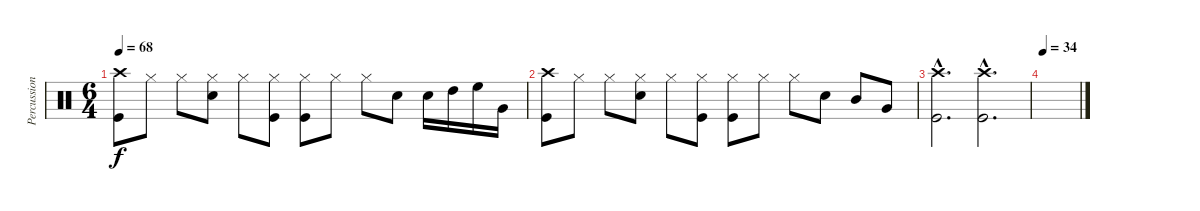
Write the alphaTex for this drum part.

\track ("Percussion" "Percussion") {instrument percussion}
\staff {score}
\articulation defaults
\ts (6 4)
\tempo 68
\clef neutral
\ks c
("Crash high (hit)" "Kick (hit)").8{dy f} "Hi-Hat (closed)".8 "Hi-Hat (closed)".8 ("Hi-Hat (closed)" "Electric Snare (hit)").8 "Hi-Hat (closed)".8 ("Hi-Hat (closed)" "Kick (hit)").8 ("Hi-Hat (closed)" "Kick (hit)").8 "Hi-Hat (closed)".8 "Hi-Hat (closed)".8 "Electric Snare (hit)".8 "Electric Snare (hit)".16 "High Tom (hit)".16 "High Floor Tom (hit)".16 "Very Low Tom (hit)".16 |
("Crash high (hit)" "Kick (hit)").8 "Hi-Hat (closed)".8 "Hi-Hat (closed)".8 ("Hi-Hat (closed)" "Electric Snare (hit)").8 "Hi-Hat (closed)".8 ("Hi-Hat (closed)" "Kick (hit)").8 ("Hi-Hat (closed)" "Kick (hit)").8 "Hi-Hat (closed)".8 "Hi-Hat (closed)".8 "Electric Snare (hit)".8 "Mid Tom (hit)".8 "Very Low Tom (hit)".8 |
("Crash high (hit)"{hac} "Kick (hit)"{hac}).2{d} ("Crash high (hit)"{hac} "Kick (hit)"{hac}).2{d} |
\tempo 34
